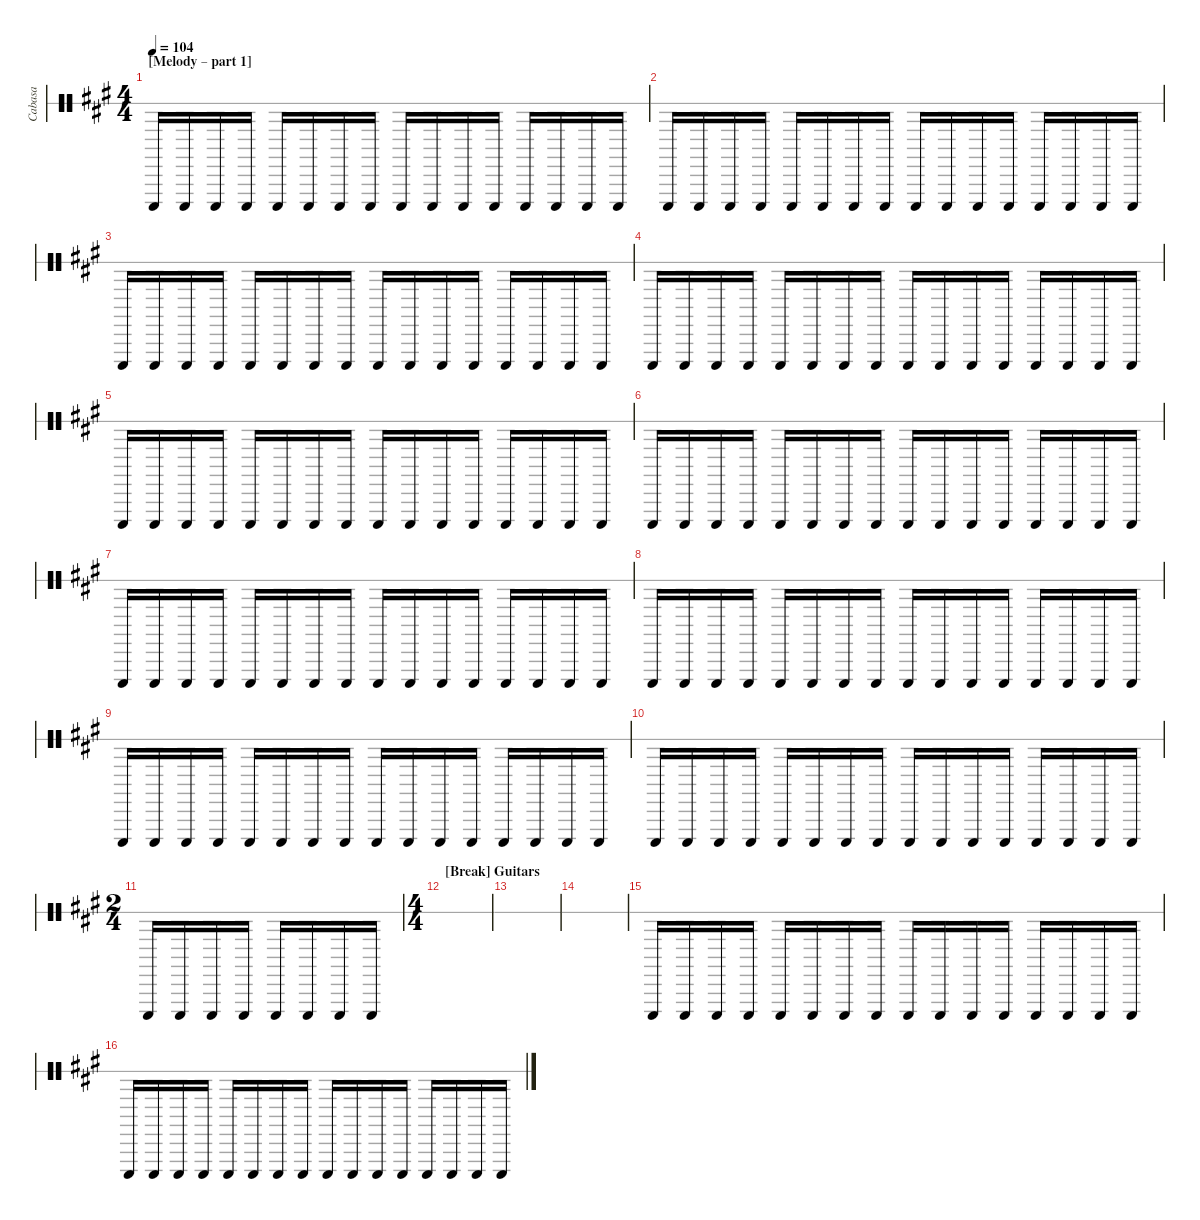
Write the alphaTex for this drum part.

\hideDynamics
\bracketExtendMode nobrackets
\otherSystemsTrackNameOrientation horizontal
\track ("Cabasa" "Cabasa") {instrument percussion}
\staff {score 1}
\articulation defaults
\ts (4 4)
\section ("" "[Melody – part 1] ")
\tempo 104
\clef neutral
\ks a "Cabasa (hit)"{acc forcenatural}.16{dy f beam Up} "Cabasa (hit)"{acc forcenatural}.16{beam Up} "Cabasa (hit)"{acc forcenatural}.16{beam Up} "Cabasa (hit)"{acc forcenatural}.16{beam Up} "Cabasa (hit)"{acc forcenatural}.16{beam Up} "Cabasa (hit)"{acc forcenatural}.16{beam Up} "Cabasa (hit)"{acc forcenatural}.16{beam Up} "Cabasa (hit)"{acc forcenatural}.16{beam Up} "Cabasa (hit)"{acc forcenatural}.16{beam Up} "Cabasa (hit)"{acc forcenatural}.16{beam Up} "Cabasa (hit)"{acc forcenatural}.16{beam Up} "Cabasa (hit)"{acc forcenatural}.16{beam Up} "Cabasa (hit)"{acc forcenatural}.16{beam Up} "Cabasa (hit)"{acc forcenatural}.16{beam Up} "Cabasa (hit)"{acc forcenatural}.16{beam Up} "Cabasa (hit)"{acc forcenatural}.16{beam Up}
|
"Cabasa (hit)"{acc forcenatural}.16{beam Up} "Cabasa (hit)"{acc forcenatural}.16{beam Up} "Cabasa (hit)"{acc forcenatural}.16{beam Up} "Cabasa (hit)"{acc forcenatural}.16{beam Up} "Cabasa (hit)"{acc forcenatural}.16{beam Up} "Cabasa (hit)"{acc forcenatural}.16{beam Up} "Cabasa (hit)"{acc forcenatural}.16{beam Up} "Cabasa (hit)"{acc forcenatural}.16{beam Up} "Cabasa (hit)"{acc forcenatural}.16{beam Up} "Cabasa (hit)"{acc forcenatural}.16{beam Up} "Cabasa (hit)"{acc forcenatural}.16{beam Up} "Cabasa (hit)"{acc forcenatural}.16{beam Up} "Cabasa (hit)"{acc forcenatural}.16{beam Up} "Cabasa (hit)"{acc forcenatural}.16{beam Up} "Cabasa (hit)"{acc forcenatural}.16{beam Up} "Cabasa (hit)"{acc forcenatural}.16{beam Up} |
"Cabasa (hit)"{acc forcenatural}.16{beam Up} "Cabasa (hit)"{acc forcenatural}.16{beam Up} "Cabasa (hit)"{acc forcenatural}.16{beam Up} "Cabasa (hit)"{acc forcenatural}.16{beam Up} "Cabasa (hit)"{acc forcenatural}.16{beam Up} "Cabasa (hit)"{acc forcenatural}.16{beam Up} "Cabasa (hit)"{acc forcenatural}.16{beam Up} "Cabasa (hit)"{acc forcenatural}.16{beam Up} "Cabasa (hit)"{acc forcenatural}.16{beam Up} "Cabasa (hit)"{acc forcenatural}.16{beam Up} "Cabasa (hit)"{acc forcenatural}.16{beam Up} "Cabasa (hit)"{acc forcenatural}.16{beam Up} "Cabasa (hit)"{acc forcenatural}.16{beam Up} "Cabasa (hit)"{acc forcenatural}.16{beam Up} "Cabasa (hit)"{acc forcenatural}.16{beam Up} "Cabasa (hit)"{acc forcenatural}.16{beam Up} |
"Cabasa (hit)"{acc forcenatural}.16{beam Up} "Cabasa (hit)"{acc forcenatural}.16{beam Up} "Cabasa (hit)"{acc forcenatural}.16{beam Up} "Cabasa (hit)"{acc forcenatural}.16{beam Up} "Cabasa (hit)"{acc forcenatural}.16{beam Up} "Cabasa (hit)"{acc forcenatural}.16{beam Up} "Cabasa (hit)"{acc forcenatural}.16{beam Up} "Cabasa (hit)"{acc forcenatural}.16{beam Up} "Cabasa (hit)"{acc forcenatural}.16{beam Up} "Cabasa (hit)"{acc forcenatural}.16{beam Up} "Cabasa (hit)"{acc forcenatural}.16{beam Up} "Cabasa (hit)"{acc forcenatural}.16{beam Up} "Cabasa (hit)"{acc forcenatural}.16{beam Up} "Cabasa (hit)"{acc forcenatural}.16{beam Up} "Cabasa (hit)"{acc forcenatural}.16{beam Up} "Cabasa (hit)"{acc forcenatural}.16{beam Up} |
"Cabasa (hit)"{acc forcenatural}.16{beam Up} "Cabasa (hit)"{acc forcenatural}.16{beam Up} "Cabasa (hit)"{acc forcenatural}.16{beam Up} "Cabasa (hit)"{acc forcenatural}.16{beam Up} "Cabasa (hit)"{acc forcenatural}.16{beam Up} "Cabasa (hit)"{acc forcenatural}.16{beam Up} "Cabasa (hit)"{acc forcenatural}.16{beam Up} "Cabasa (hit)"{acc forcenatural}.16{beam Up} "Cabasa (hit)"{acc forcenatural}.16{beam Up} "Cabasa (hit)"{acc forcenatural}.16{beam Up} "Cabasa (hit)"{acc forcenatural}.16{beam Up} "Cabasa (hit)"{acc forcenatural}.16{beam Up} "Cabasa (hit)"{acc forcenatural}.16{beam Up} "Cabasa (hit)"{acc forcenatural}.16{beam Up} "Cabasa (hit)"{acc forcenatural}.16{beam Up} "Cabasa (hit)"{acc forcenatural}.16{beam Up} |
"Cabasa (hit)"{acc forcenatural}.16{beam Up} "Cabasa (hit)"{acc forcenatural}.16{beam Up} "Cabasa (hit)"{acc forcenatural}.16{beam Up} "Cabasa (hit)"{acc forcenatural}.16{beam Up} "Cabasa (hit)"{acc forcenatural}.16{beam Up} "Cabasa (hit)"{acc forcenatural}.16{beam Up} "Cabasa (hit)"{acc forcenatural}.16{beam Up} "Cabasa (hit)"{acc forcenatural}.16{beam Up} "Cabasa (hit)"{acc forcenatural}.16{beam Up} "Cabasa (hit)"{acc forcenatural}.16{beam Up} "Cabasa (hit)"{acc forcenatural}.16{beam Up} "Cabasa (hit)"{acc forcenatural}.16{beam Up} "Cabasa (hit)"{acc forcenatural}.16{beam Up} "Cabasa (hit)"{acc forcenatural}.16{beam Up} "Cabasa (hit)"{acc forcenatural}.16{beam Up} "Cabasa (hit)"{acc forcenatural}.16{beam Up} |
"Cabasa (hit)"{acc forcenatural}.16{beam Up} "Cabasa (hit)"{acc forcenatural}.16{beam Up} "Cabasa (hit)"{acc forcenatural}.16{beam Up} "Cabasa (hit)"{acc forcenatural}.16{beam Up} "Cabasa (hit)"{acc forcenatural}.16{beam Up} "Cabasa (hit)"{acc forcenatural}.16{beam Up} "Cabasa (hit)"{acc forcenatural}.16{beam Up} "Cabasa (hit)"{acc forcenatural}.16{beam Up} "Cabasa (hit)"{acc forcenatural}.16{beam Up} "Cabasa (hit)"{acc forcenatural}.16{beam Up} "Cabasa (hit)"{acc forcenatural}.16{beam Up} "Cabasa (hit)"{acc forcenatural}.16{beam Up} "Cabasa (hit)"{acc forcenatural}.16{beam Up} "Cabasa (hit)"{acc forcenatural}.16{beam Up} "Cabasa (hit)"{acc forcenatural}.16{beam Up} "Cabasa (hit)"{acc forcenatural}.16{beam Up} |
"Cabasa (hit)"{acc forcenatural}.16{beam Up} "Cabasa (hit)"{acc forcenatural}.16{beam Up} "Cabasa (hit)"{acc forcenatural}.16{beam Up} "Cabasa (hit)"{acc forcenatural}.16{beam Up} "Cabasa (hit)"{acc forcenatural}.16{beam Up} "Cabasa (hit)"{acc forcenatural}.16{beam Up} "Cabasa (hit)"{acc forcenatural}.16{beam Up} "Cabasa (hit)"{acc forcenatural}.16{beam Up} "Cabasa (hit)"{acc forcenatural}.16{beam Up} "Cabasa (hit)"{acc forcenatural}.16{beam Up} "Cabasa (hit)"{acc forcenatural}.16{beam Up} "Cabasa (hit)"{acc forcenatural}.16{beam Up} "Cabasa (hit)"{acc forcenatural}.16{beam Up} "Cabasa (hit)"{acc forcenatural}.16{beam Up} "Cabasa (hit)"{acc forcenatural}.16{beam Up} "Cabasa (hit)"{acc forcenatural}.16{beam Up} |
"Cabasa (hit)"{acc forcenatural}.16{beam Up} "Cabasa (hit)"{acc forcenatural}.16{beam Up} "Cabasa (hit)"{acc forcenatural}.16{beam Up} "Cabasa (hit)"{acc forcenatural}.16{beam Up} "Cabasa (hit)"{acc forcenatural}.16{beam Up} "Cabasa (hit)"{acc forcenatural}.16{beam Up} "Cabasa (hit)"{acc forcenatural}.16{beam Up} "Cabasa (hit)"{acc forcenatural}.16{beam Up} "Cabasa (hit)"{acc forcenatural}.16{beam Up} "Cabasa (hit)"{acc forcenatural}.16{beam Up} "Cabasa (hit)"{acc forcenatural}.16{beam Up} "Cabasa (hit)"{acc forcenatural}.16{beam Up} "Cabasa (hit)"{acc forcenatural}.16{beam Up} "Cabasa (hit)"{acc forcenatural}.16{beam Up} "Cabasa (hit)"{acc forcenatural}.16{beam Up} "Cabasa (hit)"{acc forcenatural}.16{beam Up} |
"Cabasa (hit)"{acc forcenatural}.16{beam Up} "Cabasa (hit)"{acc forcenatural}.16{beam Up} "Cabasa (hit)"{acc forcenatural}.16{beam Up} "Cabasa (hit)"{acc forcenatural}.16{beam Up} "Cabasa (hit)"{acc forcenatural}.16{beam Up} "Cabasa (hit)"{acc forcenatural}.16{beam Up} "Cabasa (hit)"{acc forcenatural}.16{beam Up} "Cabasa (hit)"{acc forcenatural}.16{beam Up} "Cabasa (hit)"{acc forcenatural}.16{beam Up} "Cabasa (hit)"{acc forcenatural}.16{beam Up} "Cabasa (hit)"{acc forcenatural}.16{beam Up} "Cabasa (hit)"{acc forcenatural}.16{beam Up} "Cabasa (hit)"{acc forcenatural}.16{beam Up} "Cabasa (hit)"{acc forcenatural}.16{beam Up} "Cabasa (hit)"{acc forcenatural}.16{beam Up} "Cabasa (hit)"{acc forcenatural}.16{beam Up} |
\ts (2 4)
"Cabasa (hit)"{acc forcenatural}.16{beam Up} "Cabasa (hit)"{acc forcenatural}.16{beam Up} "Cabasa (hit)"{acc forcenatural}.16{beam Up} "Cabasa (hit)"{acc forcenatural}.16{beam Up} "Cabasa (hit)"{acc forcenatural}.16{beam Up} "Cabasa (hit)"{acc forcenatural}.16{beam Up} "Cabasa (hit)"{acc forcenatural}.16{beam Up} "Cabasa (hit)"{acc forcenatural}.16{beam Up} |
\ts (4 4)
\section ("" "[Break] Guitars")
|
|
|
"Cabasa (hit)"{acc forcenatural}.16{beam Up} "Cabasa (hit)"{acc forcenatural}.16{beam Up} "Cabasa (hit)"{acc forcenatural}.16{beam Up} "Cabasa (hit)"{acc forcenatural}.16{beam Up} "Cabasa (hit)"{acc forcenatural}.16{beam Up} "Cabasa (hit)"{acc forcenatural}.16{beam Up} "Cabasa (hit)"{acc forcenatural}.16{beam Up} "Cabasa (hit)"{acc forcenatural}.16{beam Up} "Cabasa (hit)"{acc forcenatural}.16{beam Up} "Cabasa (hit)"{acc forcenatural}.16{beam Up} "Cabasa (hit)"{acc forcenatural}.16{beam Up} "Cabasa (hit)"{acc forcenatural}.16{beam Up} "Cabasa (hit)"{acc forcenatural}.16{beam Up} "Cabasa (hit)"{acc forcenatural}.16{beam Up} "Cabasa (hit)"{acc forcenatural}.16{beam Up} "Cabasa (hit)"{acc forcenatural}.16{beam Up} |
"Cabasa (hit)"{acc forcenatural}.16{beam Up} "Cabasa (hit)"{acc forcenatural}.16{beam Up} "Cabasa (hit)"{acc forcenatural}.16{beam Up} "Cabasa (hit)"{acc forcenatural}.16{beam Up} "Cabasa (hit)"{acc forcenatural}.16{beam Up} "Cabasa (hit)"{acc forcenatural}.16{beam Up} "Cabasa (hit)"{acc forcenatural}.16{beam Up} "Cabasa (hit)"{acc forcenatural}.16{beam Up} "Cabasa (hit)"{acc forcenatural}.16{beam Up} "Cabasa (hit)"{acc forcenatural}.16{beam Up} "Cabasa (hit)"{acc forcenatural}.16{beam Up} "Cabasa (hit)"{acc forcenatural}.16{beam Up} "Cabasa (hit)"{acc forcenatural}.16{beam Up} "Cabasa (hit)"{acc forcenatural}.16{beam Up} "Cabasa (hit)"{acc forcenatural}.16{beam Up} "Cabasa (hit)"{acc forcenatural}.16{beam Up}
